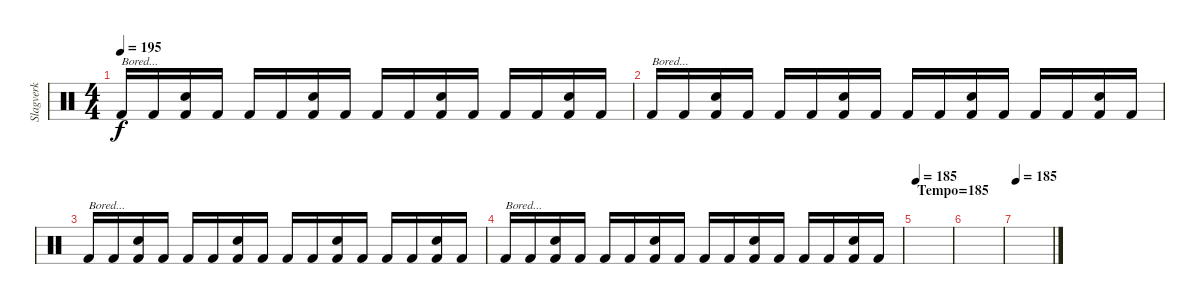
\track ("Slagverk" "Slagverk") {instrument percussion}
\staff {score}
\articulation defaults
\ts (4 4)
\tempo 195
\clef neutral
\ks c "Kick (hit) 2".16{txt "Bored..." dy f} "Kick (hit) 2".16
("Electric Snare (hit)" "Kick (hit) 2").16 "Kick (hit) 2".16 "Kick (hit) 2".16 "Kick (hit) 2".16 ("Electric Snare (hit)" "Kick (hit) 2").16 "Kick (hit) 2".16 "Kick (hit) 2".16 "Kick (hit) 2".16 ("Electric Snare (hit)" "Kick (hit) 2").16 "Kick (hit) 2".16 "Kick (hit) 2".16 "Kick (hit) 2".16 ("Electric Snare (hit)" "Kick (hit) 2").16 "Kick (hit) 2".16 |
"Kick (hit) 2".16{txt "Bored..."} "Kick (hit) 2".16 ("Electric Snare (hit)" "Kick (hit) 2").16 "Kick (hit) 2".16 "Kick (hit) 2".16 "Kick (hit) 2".16 ("Electric Snare (hit)" "Kick (hit) 2").16 "Kick (hit) 2".16 "Kick (hit) 2".16 "Kick (hit) 2".16 ("Electric Snare (hit)" "Kick (hit) 2").16 "Kick (hit) 2".16 "Kick (hit) 2".16 "Kick (hit) 2".16 ("Electric Snare (hit)" "Kick (hit) 2").16 "Kick (hit) 2".16 |
"Kick (hit) 2".16{txt "Bored..."} "Kick (hit) 2".16 ("Electric Snare (hit)" "Kick (hit) 2").16 "Kick (hit) 2".16 "Kick (hit) 2".16 "Kick (hit) 2".16 ("Electric Snare (hit)" "Kick (hit) 2").16 "Kick (hit) 2".16 "Kick (hit) 2".16 "Kick (hit) 2".16 ("Electric Snare (hit)" "Kick (hit) 2").16 "Kick (hit) 2".16 "Kick (hit) 2".16 "Kick (hit) 2".16 ("Electric Snare (hit)" "Kick (hit) 2").16 "Kick (hit) 2".16 |
"Kick (hit) 2".16{txt "Bored..."} "Kick (hit) 2".16 ("Electric Snare (hit)" "Kick (hit) 2").16 "Kick (hit) 2".16 "Kick (hit) 2".16 "Kick (hit) 2".16 ("Electric Snare (hit)" "Kick (hit) 2").16 "Kick (hit) 2".16 "Kick (hit) 2".16 "Kick (hit) 2".16 ("Electric Snare (hit)" "Kick (hit) 2").16 "Kick (hit) 2".16 "Kick (hit) 2".16 "Kick (hit) 2".16 ("Electric Snare (hit)" "Kick (hit) 2").16 "Kick (hit) 2".16 |
\section ("" "Tempo=185")
\tempo 185
|
|
\tempo 185
